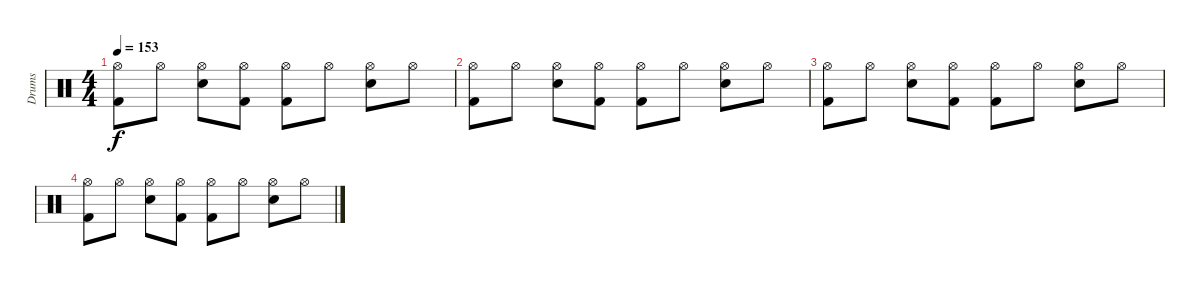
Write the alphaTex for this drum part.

\track ("Drums" "Drums") {instrument percussion}
\staff {score}
\articulation defaults
\ts (4 4)
\tempo 153
\clef neutral
\ks c
("Kick (hit) 2" "Hi-Hat (open)").8{dy f} "Hi-Hat (open)".8 ("Electric Snare (hit)" "Hi-Hat (open)").8 ("Kick (hit) 2" "Hi-Hat (open)").8 ("Kick (hit) 2" "Hi-Hat (open)").8 "Hi-Hat (open)".8 ("Electric Snare (hit)" "Hi-Hat (open)").8 "Hi-Hat (open)".8 |
("Kick (hit) 2" "Hi-Hat (open)").8 "Hi-Hat (open)".8 ("Electric Snare (hit)" "Hi-Hat (open)").8 ("Kick (hit) 2" "Hi-Hat (open)").8 ("Kick (hit) 2" "Hi-Hat (open)").8 "Hi-Hat (open)".8 ("Electric Snare (hit)" "Hi-Hat (open)").8 "Hi-Hat (open)".8 |
("Kick (hit) 2" "Hi-Hat (open)").8 "Hi-Hat (open)".8 ("Electric Snare (hit)" "Hi-Hat (open)").8 ("Kick (hit) 2" "Hi-Hat (open)").8 ("Kick (hit) 2" "Hi-Hat (open)").8 "Hi-Hat (open)".8 ("Electric Snare (hit)" "Hi-Hat (open)").8 "Hi-Hat (open)".8 |
("Kick (hit) 2" "Hi-Hat (open)").8 "Hi-Hat (open)".8 ("Electric Snare (hit)" "Hi-Hat (open)").8 ("Kick (hit) 2" "Hi-Hat (open)").8 ("Kick (hit) 2" "Hi-Hat (open)").8 "Hi-Hat (open)".8 ("Electric Snare (hit)" "Hi-Hat (open)").8 "Hi-Hat (open)".8
